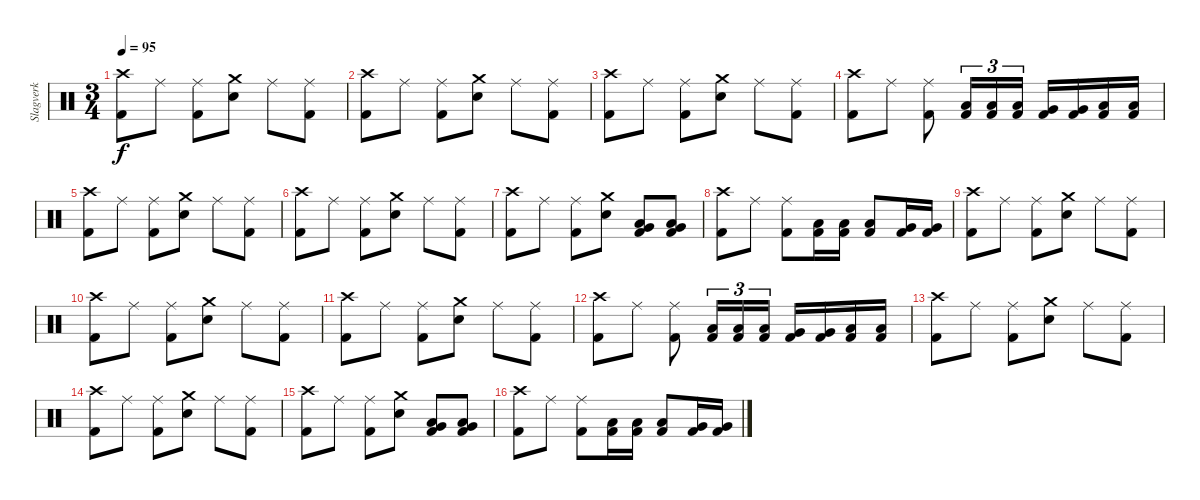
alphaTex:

\track ("Slagverk" "Slagverk") {instrument percussion}
\staff {score}
\articulation defaults
\ts (3 4)
\tempo 95
\clef neutral
\ks c
("Crash high (hit)" "Kick (hit) 2").8{dy f} "Ride (middle)".8 ("Ride (middle)" "Kick (hit) 2").8 ("Crash medium (hit)" "Electric Snare (hit)").8 "Ride (middle)".8 ("Ride (middle)" "Kick (hit) 2").8 |
("Crash high (hit)" "Kick (hit) 2").8 "Ride (middle)".8 ("Ride (middle)" "Kick (hit) 2").8 ("Crash medium (hit)" "Electric Snare (hit)").8 "Ride (middle)".8 ("Ride (middle)" "Kick (hit) 2").8 |
("Crash high (hit)" "Kick (hit) 2").8 "Ride (middle)".8 ("Ride (middle)" "Kick (hit) 2").8 ("Crash medium (hit)" "Electric Snare (hit)").8 "Ride (middle)".8 ("Ride (middle)" "Kick (hit) 2").8 |
("Crash high (hit)" "Kick (hit) 2").8 "Ride (middle)".8 ("Ride (middle)" "Kick (hit) 2").8 ("Low Tom (hit)" "Kick (hit) 2").16{tu (3 2)} ("Low Tom (hit)" "Kick (hit) 2").16{tu (3 2)} ("Low Tom (hit)" "Kick (hit) 2").16{tu (3 2)} ("Very Low Tom (hit)" "Kick (hit) 2").16 ("Very Low Tom (hit)" "Kick (hit) 2").16 ("Low Floor Tom (hit)" "Kick (hit) 2").16 ("Low Floor Tom (hit)" "Kick (hit) 2").16 |
("Crash high (hit)" "Kick (hit) 2").8 "Ride (middle)".8 ("Ride (middle)" "Kick (hit) 2").8 ("Crash medium (hit)" "Electric Snare (hit)").8 "Ride (middle)".8 ("Ride (middle)" "Kick (hit) 2").8 |
("Crash high (hit)" "Kick (hit) 2").8 "Ride (middle)".8 ("Ride (middle)" "Kick (hit) 2").8 ("Crash medium (hit)" "Electric Snare (hit)").8 "Ride (middle)".8 ("Ride (middle)" "Kick (hit) 2").8 |
("Crash high (hit)" "Kick (hit) 2").8 "Ride (middle)".8 ("Ride (middle)" "Kick (hit) 2").8 ("Crash medium (hit)" "Electric Snare (hit)").8 ("Low Tom (hit)" "Very Low Tom (hit)" "Kick (hit) 2").8 ("Low Tom (hit)" "Very Low Tom (hit)" "Kick (hit) 2").8 |
("Crash high (hit)" "Kick (hit) 2").8 "Ride (middle)".8 ("Ride (middle)" "Kick (hit) 2").8 ("Low Tom (hit)" "Kick (hit) 2").16 ("Low Tom (hit)" "Kick (hit) 2").16 ("Low Tom (hit)" "Kick (hit) 2").8 ("Very Low Tom (hit)" "Kick (hit) 2").16 ("Very Low Tom (hit)" "Kick (hit) 2").16 |
("Crash high (hit)" "Kick (hit) 2").8 "Ride (middle)".8 ("Ride (middle)" "Kick (hit) 2").8 ("Crash medium (hit)" "Electric Snare (hit)").8 "Ride (middle)".8 ("Ride (middle)" "Kick (hit) 2").8 |
("Crash high (hit)" "Kick (hit) 2").8 "Ride (middle)".8 ("Ride (middle)" "Kick (hit) 2").8 ("Crash medium (hit)" "Electric Snare (hit)").8 "Ride (middle)".8 ("Ride (middle)" "Kick (hit) 2").8 |
("Crash high (hit)" "Kick (hit) 2").8 "Ride (middle)".8 ("Ride (middle)" "Kick (hit) 2").8 ("Crash medium (hit)" "Electric Snare (hit)").8 "Ride (middle)".8 ("Ride (middle)" "Kick (hit) 2").8 |
("Crash high (hit)" "Kick (hit) 2").8 "Ride (middle)".8 ("Ride (middle)" "Kick (hit) 2").8 ("Low Tom (hit)" "Kick (hit) 2").16{tu (3 2)} ("Low Tom (hit)" "Kick (hit) 2").16{tu (3 2)} ("Low Tom (hit)" "Kick (hit) 2").16{tu (3 2)} ("Very Low Tom (hit)" "Kick (hit) 2").16 ("Very Low Tom (hit)" "Kick (hit) 2").16 ("Low Floor Tom (hit)" "Kick (hit) 2").16 ("Low Floor Tom (hit)" "Kick (hit) 2").16 |
("Crash high (hit)" "Kick (hit) 2").8 "Ride (middle)".8 ("Ride (middle)" "Kick (hit) 2").8 ("Crash medium (hit)" "Electric Snare (hit)").8 "Ride (middle)".8 ("Ride (middle)" "Kick (hit) 2").8 |
("Crash high (hit)" "Kick (hit) 2").8 "Ride (middle)".8 ("Ride (middle)" "Kick (hit) 2").8 ("Crash medium (hit)" "Electric Snare (hit)").8 "Ride (middle)".8 ("Ride (middle)" "Kick (hit) 2").8 |
("Crash high (hit)" "Kick (hit) 2").8 "Ride (middle)".8 ("Ride (middle)" "Kick (hit) 2").8 ("Crash medium (hit)" "Electric Snare (hit)").8 ("Low Tom (hit)" "Very Low Tom (hit)" "Kick (hit) 2").8 ("Low Tom (hit)" "Very Low Tom (hit)" "Kick (hit) 2").8 |
("Crash high (hit)" "Kick (hit) 2").8 "Ride (middle)".8 ("Ride (middle)" "Kick (hit) 2").8 ("Low Tom (hit)" "Kick (hit) 2").16 ("Low Tom (hit)" "Kick (hit) 2").16 ("Low Tom (hit)" "Kick (hit) 2").8 ("Very Low Tom (hit)" "Kick (hit) 2").16 ("Very Low Tom (hit)" "Kick (hit) 2").16
